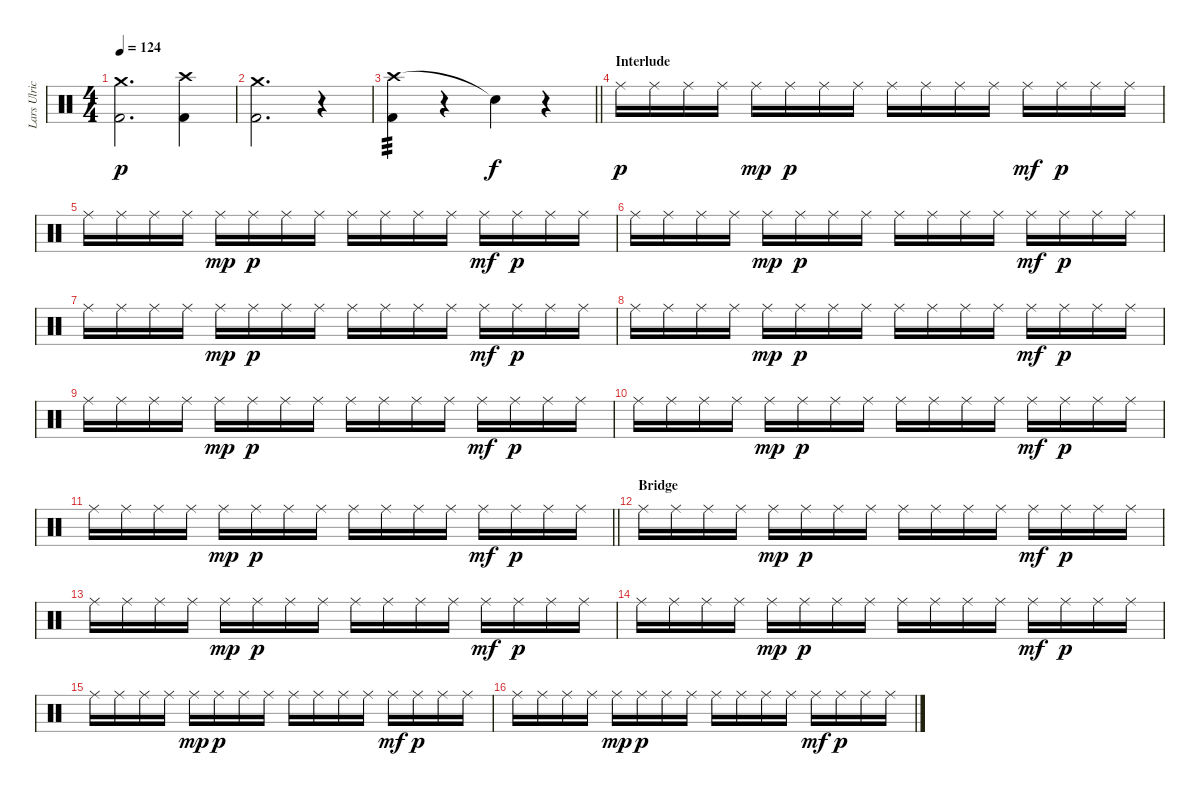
\track ("Lars Ulrich" "Lars Ulric") {instrument percussion}
\staff {score}
\articulation defaults
\ts (4 4)
\tempo 124
\clef neutral
\ks c
("Crash medium (hit)" "Kick (hit) 2").2{d dy p} ("Crash high (hit)" "Kick (hit) 2").4 |
("Crash medium (hit)" "Kick (hit) 2").2{d} r.4 |
\barLineRight lightlight
("Crash high (hit)" "Kick (hit) 2").4{tp 3} r.4 "Snare (hit)"{t}.4{dy f} r.4 |
\section ("" "Interlude")
"Ride (middle)".16{dy p} "Ride (middle)".16 "Ride (middle)".16 "Ride (middle)".16 "Ride (middle)".16{dy mp} "Ride (middle)".16{dy p} "Ride (middle)".16 "Ride (middle)".16 "Ride (middle)".16 "Ride (middle)".16 "Ride (middle)".16 "Ride (middle)".16 "Ride (middle)".16{dy mf} "Ride (middle)".16{dy p} "Ride (middle)".16 "Ride (middle)".16 |
"Ride (middle)".16 "Ride (middle)".16 "Ride (middle)".16 "Ride (middle)".16 "Ride (middle)".16{dy mp} "Ride (middle)".16{dy p} "Ride (middle)".16 "Ride (middle)".16 "Ride (middle)".16 "Ride (middle)".16 "Ride (middle)".16 "Ride (middle)".16 "Ride (middle)".16{dy mf} "Ride (middle)".16{dy p} "Ride (middle)".16 "Ride (middle)".16 |
"Ride (middle)".16 "Ride (middle)".16 "Ride (middle)".16 "Ride (middle)".16 "Ride (middle)".16{dy mp} "Ride (middle)".16{dy p} "Ride (middle)".16 "Ride (middle)".16 "Ride (middle)".16 "Ride (middle)".16 "Ride (middle)".16 "Ride (middle)".16 "Ride (middle)".16{dy mf} "Ride (middle)".16{dy p} "Ride (middle)".16 "Ride (middle)".16 |
"Ride (middle)".16 "Ride (middle)".16 "Ride (middle)".16 "Ride (middle)".16 "Ride (middle)".16{dy mp} "Ride (middle)".16{dy p} "Ride (middle)".16 "Ride (middle)".16 "Ride (middle)".16 "Ride (middle)".16 "Ride (middle)".16 "Ride (middle)".16 "Ride (middle)".16{dy mf} "Ride (middle)".16{dy p} "Ride (middle)".16 "Ride (middle)".16 |
"Ride (middle)".16 "Ride (middle)".16 "Ride (middle)".16 "Ride (middle)".16 "Ride (middle)".16{dy mp} "Ride (middle)".16{dy p} "Ride (middle)".16 "Ride (middle)".16 "Ride (middle)".16 "Ride (middle)".16 "Ride (middle)".16 "Ride (middle)".16 "Ride (middle)".16{dy mf} "Ride (middle)".16{dy p} "Ride (middle)".16 "Ride (middle)".16 |
"Ride (middle)".16 "Ride (middle)".16 "Ride (middle)".16 "Ride (middle)".16 "Ride (middle)".16{dy mp} "Ride (middle)".16{dy p} "Ride (middle)".16 "Ride (middle)".16 "Ride (middle)".16 "Ride (middle)".16 "Ride (middle)".16 "Ride (middle)".16 "Ride (middle)".16{dy mf} "Ride (middle)".16{dy p} "Ride (middle)".16 "Ride (middle)".16 |
"Ride (middle)".16 "Ride (middle)".16 "Ride (middle)".16 "Ride (middle)".16 "Ride (middle)".16{dy mp} "Ride (middle)".16{dy p} "Ride (middle)".16 "Ride (middle)".16 "Ride (middle)".16 "Ride (middle)".16 "Ride (middle)".16 "Ride (middle)".16 "Ride (middle)".16{dy mf} "Ride (middle)".16{dy p} "Ride (middle)".16 "Ride (middle)".16 |
\barLineRight lightlight "Ride (middle)".16 "Ride (middle)".16 "Ride (middle)".16 "Ride (middle)".16 "Ride (middle)".16{dy mp} "Ride (middle)".16{dy p} "Ride (middle)".16 "Ride (middle)".16 "Ride (middle)".16 "Ride (middle)".16 "Ride (middle)".16 "Ride (middle)".16 "Ride (middle)".16{dy mf} "Ride (middle)".16{dy p} "Ride (middle)".16 "Ride (middle)".16
|
\section ("" "Bridge")
"Ride (middle)".16 "Ride (middle)".16 "Ride (middle)".16 "Ride (middle)".16 "Ride (middle)".16{dy mp} "Ride (middle)".16{dy p} "Ride (middle)".16 "Ride (middle)".16 "Ride (middle)".16 "Ride (middle)".16 "Ride (middle)".16 "Ride (middle)".16 "Ride (middle)".16{dy mf} "Ride (middle)".16{dy p} "Ride (middle)".16 "Ride (middle)".16 |
"Ride (middle)".16 "Ride (middle)".16 "Ride (middle)".16 "Ride (middle)".16 "Ride (middle)".16{dy mp} "Ride (middle)".16{dy p} "Ride (middle)".16 "Ride (middle)".16 "Ride (middle)".16 "Ride (middle)".16 "Ride (middle)".16 "Ride (middle)".16 "Ride (middle)".16{dy mf} "Ride (middle)".16{dy p} "Ride (middle)".16 "Ride (middle)".16 |
"Ride (middle)".16 "Ride (middle)".16 "Ride (middle)".16 "Ride (middle)".16 "Ride (middle)".16{dy mp} "Ride (middle)".16{dy p} "Ride (middle)".16 "Ride (middle)".16 "Ride (middle)".16 "Ride (middle)".16 "Ride (middle)".16 "Ride (middle)".16 "Ride (middle)".16{dy mf} "Ride (middle)".16{dy p} "Ride (middle)".16 "Ride (middle)".16 |
"Ride (middle)".16 "Ride (middle)".16 "Ride (middle)".16 "Ride (middle)".16 "Ride (middle)".16{dy mp} "Ride (middle)".16{dy p} "Ride (middle)".16 "Ride (middle)".16 "Ride (middle)".16 "Ride (middle)".16 "Ride (middle)".16 "Ride (middle)".16 "Ride (middle)".16{dy mf} "Ride (middle)".16{dy p} "Ride (middle)".16 "Ride (middle)".16 |
"Ride (middle)".16 "Ride (middle)".16 "Ride (middle)".16 "Ride (middle)".16 "Ride (middle)".16{dy mp} "Ride (middle)".16{dy p} "Ride (middle)".16 "Ride (middle)".16 "Ride (middle)".16 "Ride (middle)".16 "Ride (middle)".16 "Ride (middle)".16 "Ride (middle)".16{dy mf} "Ride (middle)".16{dy p} "Ride (middle)".16 "Ride (middle)".16
